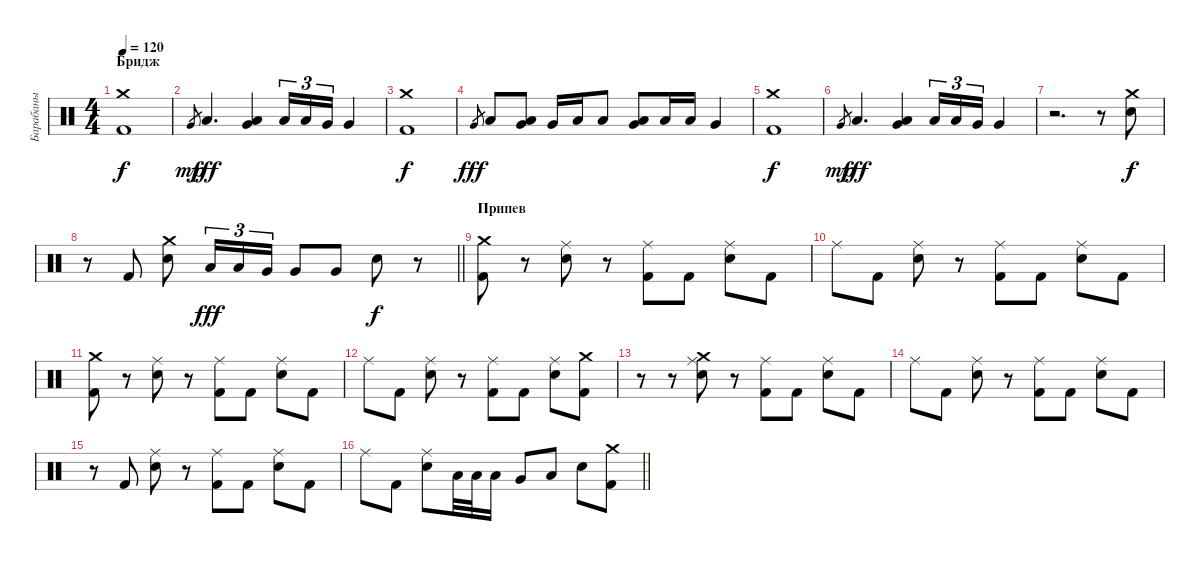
\track ("Барабаны" "Барабаны") {instrument percussion}
\staff {score}
\articulation defaults
\ts (4 4)
\section ("" "Бридж")
\tempo 120
\clef neutral
\ks c
("Kick (hit) 2" "Crash medium (hit)").1{dy f} |
"Very Low Tom (hit)".8{gr dy mp} "Low Tom (hit)".4{d dy fff} ("Very Low Tom (hit)" "Low Tom (hit)").4 "Low Floor Tom (hit)".16{tu (3 2)} "Low Floor Tom (hit)".16{tu (3 2)} "Very Low Tom (hit)".16{tu (3 2)} "Very Low Tom (hit)".4 |
("Kick (hit) 2" "Crash medium (hit)").1{dy f} |
"Very Low Tom (hit)".8{gr dy fff} "Low Tom (hit)".8 ("Very Low Tom (hit)" "Low Tom (hit)").8 "Very Low Tom (hit)".16 "Low Tom (hit)".16 "Low Tom (hit)".8 ("Very Low Tom (hit)" "Low Tom (hit)").8 "Low Tom (hit)".16 "Low Tom (hit)".16 "Very Low Tom (hit)".4 |
("Kick (hit) 2" "Crash medium (hit)").1{dy f} |
"Very Low Tom (hit)".8{gr dy mp} "Low Tom (hit)".4{d dy fff} ("Very Low Tom (hit)" "Low Tom (hit)").4 "Low Floor Tom (hit)".16{tu (3 2)} "Low Floor Tom (hit)".16{tu (3 2)} "Very Low Tom (hit)".16{tu (3 2)} "Very Low Tom (hit)".4 |
r.2{d} r.8 ("Snare (hit) 2" "Crash medium (hit)").8{dy f} |
\barLineRight lightlight
r.8 "Kick (hit) 2".8 ("Snare (hit) 2" "Crash medium (hit)").8 "Low Floor Tom (hit)".16{tu (3 2) dy fff} "Low Floor Tom (hit)".16{tu (3 2)} "Very Low Tom (hit)".16{tu (3 2)} "Very Low Tom (hit)".8 "Very Low Tom (hit)".8 "Snare (hit) 2".8{dy f} r.8 |
\section ("" "Припев")
("Kick (hit) 2" "Crash medium (hit)").8 r.8 ("Ride (middle)" "Snare (hit) 2").8 r.8 ("Ride (middle)" "Kick (hit) 2").8 "Kick (hit) 2".8 ("Ride (middle)" "Snare (hit) 2").8 "Kick (hit) 2".8 |
"Ride (middle)".8 "Kick (hit) 2".8 ("Ride (middle)" "Snare (hit) 2").8 r.8 ("Ride (middle)" "Kick (hit) 2").8 "Kick (hit) 2".8 ("Ride (middle)" "Snare (hit) 2").8 "Kick (hit) 2".8 |
("Kick (hit) 2" "Crash medium (hit)").8 r.8 ("Ride (middle)" "Snare (hit) 2").8 r.8 ("Ride (middle)" "Kick (hit) 2").8 "Kick (hit) 2".8 ("Ride (middle)" "Snare (hit) 2").8 "Kick (hit) 2".8 |
"Ride (middle)".8 "Kick (hit) 2".8 ("Ride (middle)" "Snare (hit) 2").8 r.8 ("Ride (middle)" "Kick (hit) 2").8 "Kick (hit) 2".8 ("Ride (middle)" "Snare (hit) 2").8 ("Kick (hit) 2" "Crash medium (hit)").8 |
r.8 r.8 ("Ride (middle)" "Snare (hit) 2" "Crash medium (hit)").8 r.8 ("Ride (middle)" "Kick (hit) 2").8 "Kick (hit) 2".8 ("Ride (middle)" "Snare (hit) 2").8 "Kick (hit) 2".8 |
"Ride (middle)".8 "Kick (hit) 2".8 ("Ride (middle)" "Snare (hit) 2").8 r.8 ("Ride (middle)" "Kick (hit) 2").8 "Kick (hit) 2".8 ("Ride (middle)" "Snare (hit) 2").8 "Kick (hit) 2".8 |
r.8 "Kick (hit) 2".8 ("Ride (middle)" "Snare (hit) 2").8 r.8 ("Ride (middle)" "Kick (hit) 2").8 "Kick (hit) 2".8 ("Ride (middle)" "Snare (hit) 2").8 "Kick (hit) 2".8 |
\barLineRight lightlight "Ride (middle)".8 "Kick (hit) 2".8
("Ride (middle)" "Snare (hit) 2").8 "Low Tom (hit)".32 "Low Tom (hit)".32 "Low Tom (hit)".16 "Very Low Tom (hit)".8 "Low Tom (hit)".8 "Snare (hit) 2".8 ("Kick (hit) 2" "Crash medium (hit)").8
